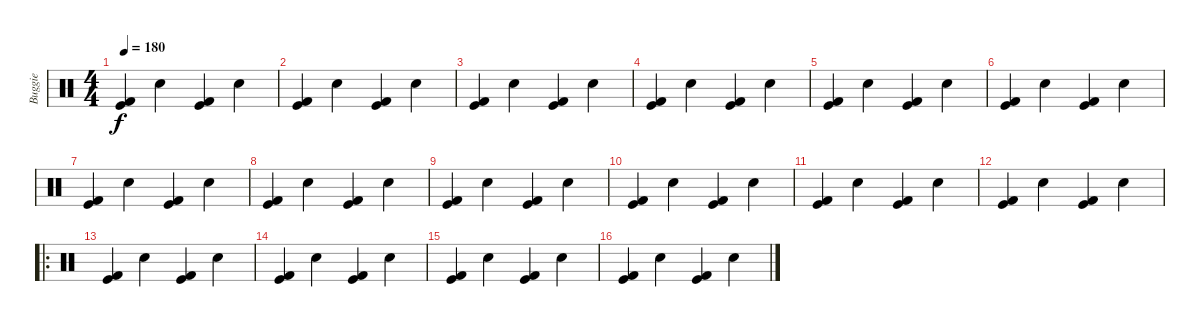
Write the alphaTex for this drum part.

\track ("Buggie" "Buggie") {instrument percussion}
\staff {score}
\articulation defaults
\ts (4 4)
\tempo 180
\clef neutral
\ks c
("Kick (hit)" "Kick (hit) 2").4{dy f} "Electric Snare (hit)".4 ("Kick (hit)" "Kick (hit) 2").4 "Electric Snare (hit)".4 |
("Kick (hit)" "Kick (hit) 2").4 "Electric Snare (hit)".4 ("Kick (hit)" "Kick (hit) 2").4 "Electric Snare (hit)".4 |
("Kick (hit)" "Kick (hit) 2").4 "Electric Snare (hit)".4 ("Kick (hit)" "Kick (hit) 2").4 "Electric Snare (hit)".4 |
("Kick (hit)" "Kick (hit) 2").4 "Electric Snare (hit)".4 ("Kick (hit)" "Kick (hit) 2").4 "Electric Snare (hit)".4 |
("Kick (hit)" "Kick (hit) 2").4 "Electric Snare (hit)".4 ("Kick (hit)" "Kick (hit) 2").4 "Electric Snare (hit)".4 |
("Kick (hit)" "Kick (hit) 2").4 "Electric Snare (hit)".4 ("Kick (hit)" "Kick (hit) 2").4 "Electric Snare (hit)".4 |
("Kick (hit)" "Kick (hit) 2").4 "Electric Snare (hit)".4 ("Kick (hit)" "Kick (hit) 2").4 "Electric Snare (hit)".4 |
("Kick (hit)" "Kick (hit) 2").4 "Electric Snare (hit)".4 ("Kick (hit)" "Kick (hit) 2").4 "Electric Snare (hit)".4 |
("Kick (hit)" "Kick (hit) 2").4 "Electric Snare (hit)".4 ("Kick (hit)" "Kick (hit) 2").4 "Electric Snare (hit)".4 |
("Kick (hit)" "Kick (hit) 2").4 "Electric Snare (hit)".4 ("Kick (hit)" "Kick (hit) 2").4 "Electric Snare (hit)".4 |
("Kick (hit)" "Kick (hit) 2").4 "Electric Snare (hit)".4 ("Kick (hit)" "Kick (hit) 2").4 "Electric Snare (hit)".4 |
("Kick (hit)" "Kick (hit) 2").4 "Electric Snare (hit)".4 ("Kick (hit)" "Kick (hit) 2").4 "Electric Snare (hit)".4 |
\ro
("Kick (hit)" "Kick (hit) 2").4 "Electric Snare (hit)".4 ("Kick (hit)" "Kick (hit) 2").4 "Electric Snare (hit)".4 |
("Kick (hit)" "Kick (hit) 2").4 "Electric Snare (hit)".4 ("Kick (hit)" "Kick (hit) 2").4 "Electric Snare (hit)".4 |
("Kick (hit)" "Kick (hit) 2").4 "Electric Snare (hit)".4 ("Kick (hit)" "Kick (hit) 2").4 "Electric Snare (hit)".4 |
("Kick (hit)" "Kick (hit) 2").4 "Electric Snare (hit)".4 ("Kick (hit)" "Kick (hit) 2").4 "Electric Snare (hit)".4
